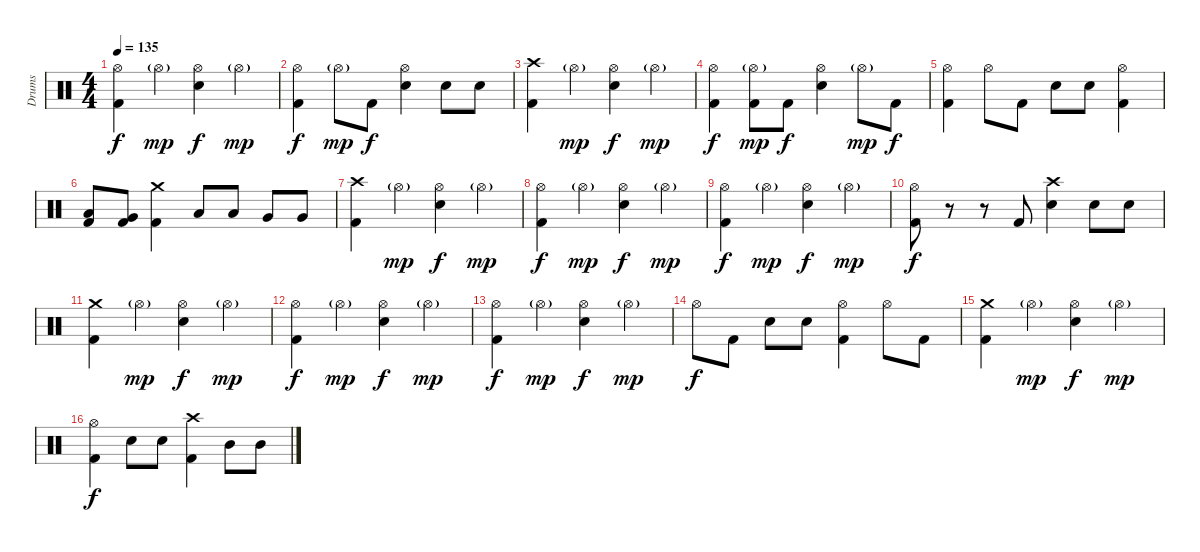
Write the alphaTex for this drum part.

\track ("Drums" "Drums") {instrument percussion}
\staff {score}
\articulation defaults
\ts (4 4)
\tempo 135
\clef neutral
\ks c
("Hi-Hat (open)" "Kick (hit) 2").4{dy f} "Hi-Hat (open)"{g}.4{dy mp} ("Hi-Hat (open)" "Snare (hit) 2").4{dy f} "Hi-Hat (open)"{g}.4{dy mp} |
("Hi-Hat (open)" "Kick (hit) 2").4{dy f} "Hi-Hat (open)"{g}.8{dy mp} "Kick (hit) 2".8{dy f} ("Hi-Hat (open)" "Snare (hit) 2").4 "Snare (hit) 2".8 "Snare (hit) 2".8 |
("Crash high (hit)" "Kick (hit) 2").4 "Hi-Hat (open)"{g}.4{dy mp} ("Hi-Hat (open)" "Snare (hit) 2").4{dy f} "Hi-Hat (open)"{g}.4{dy mp} |
("Hi-Hat (open)" "Kick (hit) 2").4{dy f} ("Hi-Hat (open)"{g} "Kick (hit) 2").8{dy mp} "Kick (hit) 2".8{dy f} ("Hi-Hat (open)" "Snare (hit) 2").4 "Hi-Hat (open)"{g}.8{dy mp} "Kick (hit) 2".8{dy f} |
("Hi-Hat (open)" "Kick (hit) 2").4 "Hi-Hat (open)".8 "Kick (hit) 2".8 "Snare (hit) 2".8 "Snare (hit) 2".8 ("Hi-Hat (open)" "Kick (hit) 2").4 |
("Low Tom (hit)" "Kick (hit) 2").8 ("Very Low Tom (hit)" "Kick (hit) 2").8 ("Crash medium (hit)" "Kick (hit) 2").4 "Low Tom (hit)".8 "Low Tom (hit)".8 "Very Low Tom (hit)".8 "Very Low Tom (hit)".8 |
("Crash high (hit)" "Kick (hit) 2").4 "Hi-Hat (open)"{g}.4{dy mp} ("Hi-Hat (open)" "Snare (hit) 2").4{dy f} "Hi-Hat (open)"{g}.4{dy mp} |
("Hi-Hat (open)" "Kick (hit) 2").4{dy f} "Hi-Hat (open)"{g}.4{dy mp} ("Hi-Hat (open)" "Snare (hit) 2").4{dy f} "Hi-Hat (open)"{g}.4{dy mp} |
("Hi-Hat (open)" "Kick (hit) 2").4{dy f} "Hi-Hat (open)"{g}.4{dy mp} ("Hi-Hat (open)" "Snare (hit) 2").4{dy f} "Hi-Hat (open)"{g}.4{dy mp} |
("Hi-Hat (open)" "Kick (hit) 2").8{dy f} r.8 r.8 "Kick (hit) 2".8 ("Crash high (hit)" "Snare (hit) 2").4 "Snare (hit) 2".8 "Snare (hit) 2".8 |
("Crash medium (hit)" "Kick (hit) 2").4 "Hi-Hat (open)"{g}.4{dy mp} ("Hi-Hat (open)" "Snare (hit) 2").4{dy f} "Hi-Hat (open)"{g}.4{dy mp} |
("Hi-Hat (open)" "Kick (hit) 2").4{dy f} "Hi-Hat (open)"{g}.4{dy mp} ("Hi-Hat (open)" "Snare (hit) 2").4{dy f} "Hi-Hat (open)"{g}.4{dy mp} |
("Hi-Hat (open)" "Kick (hit) 2").4{dy f} "Hi-Hat (open)"{g}.4{dy mp} ("Hi-Hat (open)" "Snare (hit) 2").4{dy f} "Hi-Hat (open)"{g}.4{dy mp} |
"Hi-Hat (open)".8{dy f} "Kick (hit) 2".8 "Snare (hit) 2".8 "Snare (hit) 2".8 ("Hi-Hat (open)" "Kick (hit) 2").4 "Hi-Hat (open)".8 "Kick (hit) 2".8 |
("Crash medium (hit)" "Kick (hit) 2").4 "Hi-Hat (open)"{g}.4{dy mp} ("Hi-Hat (open)" "Snare (hit) 2").4{dy f} "Hi-Hat (open)"{g}.4{dy mp} |
("Hi-Hat (open)" "Kick (hit) 2").4{dy f} "Snare (hit) 2".8 "Snare (hit) 2".8 ("Crash high (hit)" "Kick (hit) 2").4 "Mid Tom (hit)".8 "Mid Tom (hit)".8
